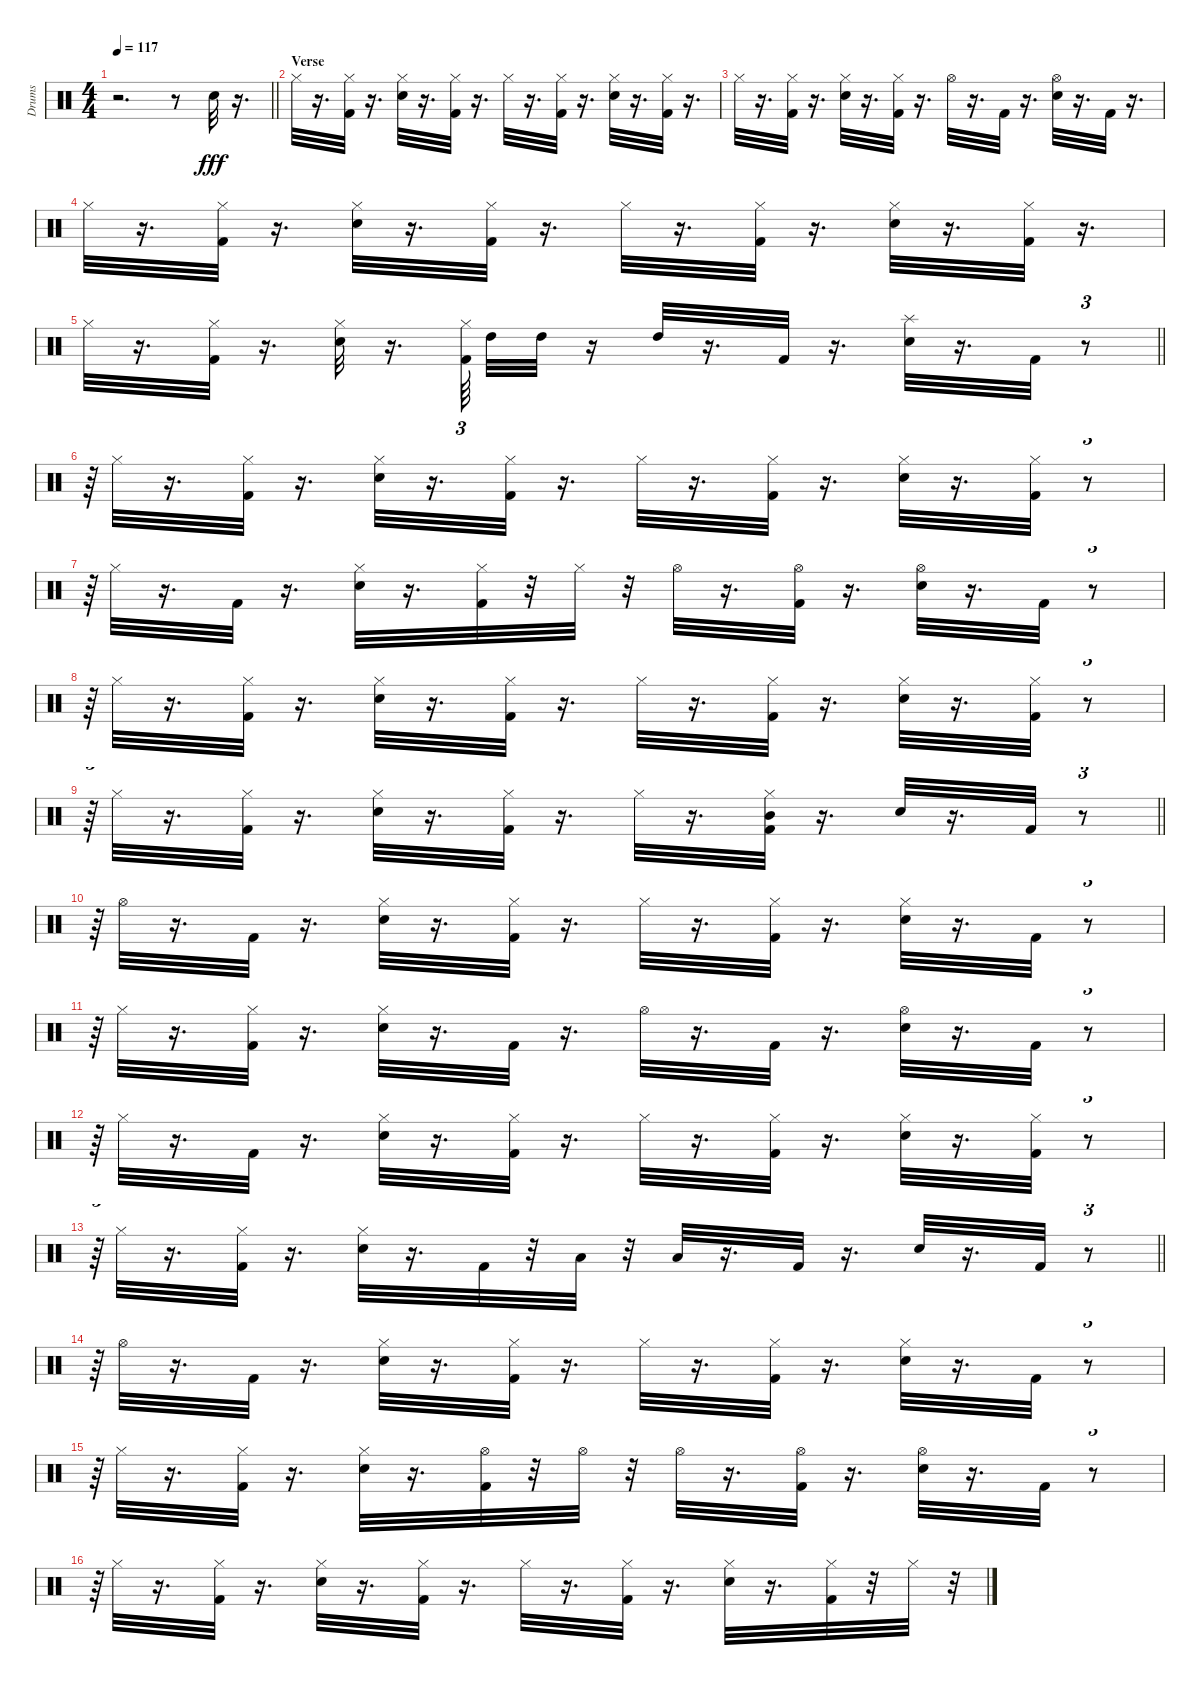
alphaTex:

\track ("Drums" "Drums") {instrument percussion}
\staff {score}
\articulation defaults
\ts (4 4)
\tempo 117
\clef neutral
\barLineRight lightlight
\ks c
r.2{d dy fff} r.8 "Electric Snare (hit)".32 r.16{d} |
\section ("" "Verse")
"Hi-Hat (closed)".32 r.16{d} ("Kick (hit) 2" "Hi-Hat (closed)").32 r.16{d} ("Electric Snare (hit)" "Hi-Hat (closed)").32 r.16{d} ("Kick (hit) 2" "Hi-Hat (closed)").32 r.16{d} "Hi-Hat (closed)".32 r.16{d} ("Kick (hit) 2" "Hi-Hat (closed)").32 r.16{d} ("Electric Snare (hit)" "Hi-Hat (closed)").32 r.16{d} ("Kick (hit) 2" "Hi-Hat (closed)").32 r.16{d} |
"Hi-Hat (closed)".32 r.16{d} ("Kick (hit) 2" "Hi-Hat (closed)").32 r.16{d} ("Electric Snare (hit)" "Hi-Hat (closed)").32 r.16{d} ("Kick (hit) 2" "Hi-Hat (closed)").32 r.16{d} "Hi-Hat (open)".32 r.16{d} "Kick (hit) 2".32 r.16{d} ("Electric Snare (hit)" "Hi-Hat (open)").32 r.16{d} "Kick (hit) 2".32 r.16{d} |
"Hi-Hat (closed)".32 r.16{d} ("Kick (hit) 2" "Hi-Hat (closed)").32 r.16{d} ("Electric Snare (hit)" "Hi-Hat (closed)").32 r.16{d} ("Kick (hit) 2" "Hi-Hat (closed)").32 r.16{d} "Hi-Hat (closed)".32 r.16{d} ("Kick (hit) 2" "Hi-Hat (closed)").32 r.16{d} ("Electric Snare (hit)" "Hi-Hat (closed)").32 r.16{d} ("Kick (hit) 2" "Hi-Hat (closed)").32 r.16{d} |
\barLineRight lightlight "Hi-Hat (closed)".32
r.16{d} ("Kick (hit) 2" "Hi-Hat (closed)").32 r.16{d} ("Electric Snare (hit)" "Hi-Hat (closed)").32 r.16{d} ("Kick (hit) 2" "Hi-Hat (closed)").64{tu (3 2) beam splitsecondary} "High Tom (hit)".32 "High Tom (hit)".32 r.16 "High Tom (hit)".32 r.16{d} "Kick (hit) 2".32 r.16{d} ("Electric Snare (hit)" "Splash (hit)").32 r.16{d} "Kick (hit) 2".32 r.8{tu (3 2)} |
r.64{tu (3 2)} "Hi-Hat (closed)".32 r.16{d} ("Kick (hit) 2" "Hi-Hat (closed)").32 r.16{d} ("Electric Snare (hit)" "Hi-Hat (closed)").32 r.16{d} ("Kick (hit) 2" "Hi-Hat (closed)").32 r.16{d} "Hi-Hat (closed)".32 r.16{d} ("Kick (hit) 2" "Hi-Hat (closed)").32 r.16{d} ("Electric Snare (hit)" "Hi-Hat (closed)").32 r.16{d} ("Kick (hit) 2" "Hi-Hat (closed)").32 r.8{tu (3 2)} |
r.64{tu (3 2)} "Hi-Hat (closed)".32 r.16{d} "Kick (hit) 2".32 r.16{d} ("Electric Snare (hit)" "Hi-Hat (closed)").32 r.16{d} ("Hi-Hat (closed)" "Kick (hit) 2").32 r.32 "Hi-Hat (closed)".32 r.32 "Hi-Hat (open)".32 r.16{d} ("Hi-Hat (open)" "Kick (hit) 2").32 r.16{d} ("Electric Snare (hit)" "Hi-Hat (open)").32 r.16{d} "Kick (hit) 2".32 r.8{tu (3 2)} |
r.64{tu (3 2)} "Hi-Hat (closed)".32 r.16{d} ("Hi-Hat (closed)" "Kick (hit) 2").32 r.16{d} ("Electric Snare (hit)" "Hi-Hat (closed)").32 r.16{d} ("Kick (hit) 2" "Hi-Hat (closed)").32 r.16{d} "Hi-Hat (closed)".32 r.16{d} ("Kick (hit) 2" "Hi-Hat (closed)").32 r.16{d} ("Electric Snare (hit)" "Hi-Hat (closed)").32 r.16{d} ("Kick (hit) 2" "Hi-Hat (closed)").32 r.8{tu (3 2)} |
\barLineRight lightlight
r.64{tu (3 2)} "Hi-Hat (closed)".32 r.16{d} ("Kick (hit) 2" "Hi-Hat (closed)").32 r.16{d} ("Electric Snare (hit)" "Hi-Hat (closed)").32 r.16{d} ("Kick (hit) 2" "Hi-Hat (closed)").32 r.16{d} "Hi-Hat (closed)".32 r.16{d} ("Mid Tom (hit)" "Hi-Hat (closed)" "Kick (hit) 2").32 r.16{d} "Electric Snare (hit)".32 r.16{d} "Kick (hit) 2".32 r.8{tu (3 2)} |
r.64{tu (3 2)} "Hi-Hat (open)".32 r.16{d} "Kick (hit) 2".32 r.16{d} ("Electric Snare (hit)" "Hi-Hat (closed)").32 r.16{d} ("Hi-Hat (closed)" "Kick (hit) 2").32 r.16{d} "Hi-Hat (closed)".32 r.16{d} ("Kick (hit) 2" "Hi-Hat (closed)").32 r.16{d} ("Electric Snare (hit)" "Hi-Hat (closed)").32 r.16{d} "Kick (hit) 2".32 r.8{tu (3 2)} |
r.64{tu (3 2)} "Hi-Hat (closed)".32 r.16{d} ("Kick (hit) 2" "Hi-Hat (closed)").32 r.16{d} ("Electric Snare (hit)" "Hi-Hat (closed)").32 r.16{d} "Kick (hit) 2".32 r.16{d} "Hi-Hat (open)".32 r.16{d} "Kick (hit) 2".32 r.16{d} ("Electric Snare (hit)" "Hi-Hat (open)").32 r.16{d} "Kick (hit) 2".32 r.8{tu (3 2)} |
r.64{tu (3 2)} "Hi-Hat (closed)".32 r.16{d} "Kick (hit) 2".32 r.16{d} ("Electric Snare (hit)" "Hi-Hat (closed)").32 r.16{d} ("Kick (hit) 2" "Hi-Hat (closed)").32 r.16{d} "Hi-Hat (closed)".32 r.16{d} ("Hi-Hat (closed)" "Kick (hit) 2").32 r.16{d} ("Electric Snare (hit)" "Hi-Hat (closed)").32 r.16{d} ("Hi-Hat (closed)" "Kick (hit) 2").32 r.8{tu (3 2)} |
\barLineRight lightlight
r.64{tu (3 2)} "Hi-Hat (closed)".32 r.16{d} ("Kick (hit) 2" "Hi-Hat (closed)").32 r.16{d} ("Electric Snare (hit)" "Hi-Hat (closed)").32 r.16{d} "Kick (hit) 2".32 r.32 "Low Tom (hit)".32 r.32 "Low Tom (hit)".32 r.16{d} "Kick (hit) 2".32 r.16{d} "Electric Snare (hit)".32 r.16{d} "Kick (hit) 2".32 r.8{tu (3 2)} |
r.64{tu (3 2)} "Hi-Hat (open)".32 r.16{d} "Kick (hit) 2".32 r.16{d} ("Electric Snare (hit)" "Hi-Hat (closed)").32 r.16{d} ("Kick (hit) 2" "Hi-Hat (closed)").32 r.16{d} "Hi-Hat (closed)".32 r.16{d} ("Kick (hit) 2" "Hi-Hat (closed)").32 r.16{d} ("Electric Snare (hit)" "Hi-Hat (closed)").32 r.16{d} "Kick (hit) 2".32 r.8{tu (3 2)} |
r.64{tu (3 2)} "Hi-Hat (closed)".32 r.16{d} ("Kick (hit) 2" "Hi-Hat (closed)").32 r.16{d} ("Electric Snare (hit)" "Hi-Hat (closed)").32 r.16{d} ("Hi-Hat (open)" "Kick (hit) 2").32 r.32 "Hi-Hat (open)".32 r.32 "Hi-Hat (open)".32 r.16{d} ("Hi-Hat (open)" "Kick (hit) 2").32 r.16{d} ("Electric Snare (hit)" "Hi-Hat (open)").32 r.16{d} "Kick (hit) 2".32 r.8{tu (3 2)} |
r.64{tu (3 2)} "Hi-Hat (closed)".32 r.16{d} ("Hi-Hat (closed)" "Kick (hit) 2").32 r.16{d} ("Electric Snare (hit)" "Hi-Hat (closed)").32 r.16{d} ("Kick (hit) 2" "Hi-Hat (closed)").32 r.16{d} "Hi-Hat (closed)".32 r.16{d} ("Kick (hit) 2" "Hi-Hat (closed)").32 r.16{d} ("Electric Snare (hit)" "Hi-Hat (closed)").32 r.16{d} ("Kick (hit) 2" "Hi-Hat (closed)").32 r.32 "Hi-Hat (closed)".32 r.32{tu (3 2)}
